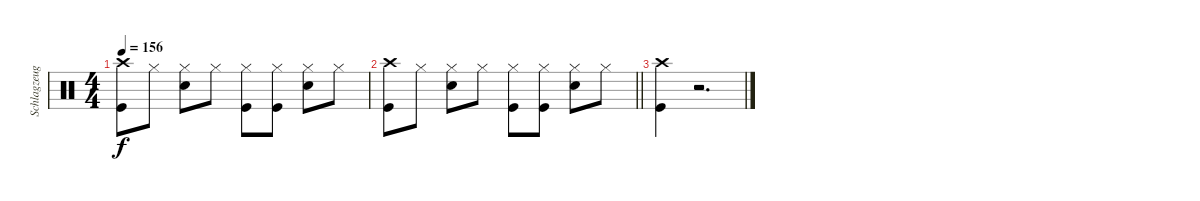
\track ("Schlagzeug" "Schlagzeug") {instrument percussion}
\staff {score}
\articulation defaults
\ts (4 4)
\tempo 156
\clef neutral
\ks c
("Crash high (hit)" "Kick (hit)").8{dy f} "Hi-Hat (closed)".8 ("Hi-Hat (closed)" "Electric Snare (hit)").8 "Hi-Hat (closed)".8 ("Hi-Hat (closed)" "Kick (hit)").8 ("Hi-Hat (closed)" "Kick (hit)").8 ("Hi-Hat (closed)" "Electric Snare (hit)").8 "Hi-Hat (closed)".8 |
\barLineRight lightlight
("Crash high (hit)" "Kick (hit)").8 "Hi-Hat (closed)".8 ("Hi-Hat (closed)" "Electric Snare (hit)").8 "Hi-Hat (closed)".8 ("Hi-Hat (closed)" "Kick (hit)").8 ("Hi-Hat (closed)" "Kick (hit)").8 ("Hi-Hat (closed)" "Electric Snare (hit)").8 "Hi-Hat (closed)".8 |
("Crash high (hit)" "Kick (hit)").4 r.2{d}
